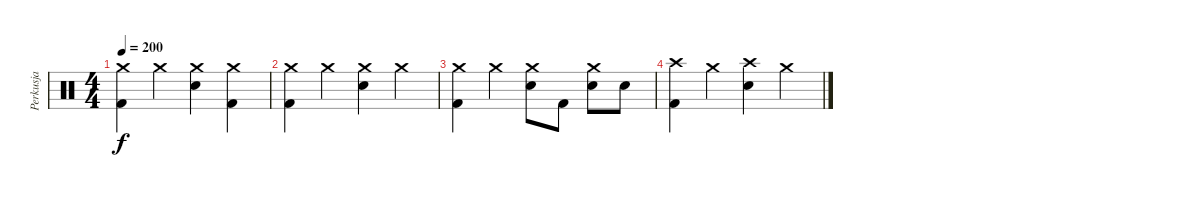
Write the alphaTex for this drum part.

\track ("Perkusja" "Perkusja") {instrument percussion}
\staff {score}
\articulation defaults
\ts (4 4)
\tempo 200
\clef neutral
\ks c
("Crash medium (hit)" "Kick (hit) 2").4{dy f} "Crash medium (hit)".4 ("Crash medium (hit)" "Snare (hit) 2").4 ("Crash medium (hit)" "Kick (hit) 2").4 |
("Crash medium (hit)" "Kick (hit) 2").4 "Crash medium (hit)".4 ("Crash medium (hit)" "Snare (hit) 2").4 "Crash medium (hit)".4 |
("Crash medium (hit)" "Kick (hit) 2").4 "Crash medium (hit)".4 ("Crash medium (hit)" "Snare (hit) 2").8 "Kick (hit) 2".8 ("Crash medium (hit)" "Electric Snare (hit)").8 "Electric Snare (hit)".8 |
("Crash high (hit)" "Kick (hit) 2").4 "Crash medium (hit)".4 ("Crash high (hit)" "Snare (hit) 2").4 "Crash medium (hit)".4
